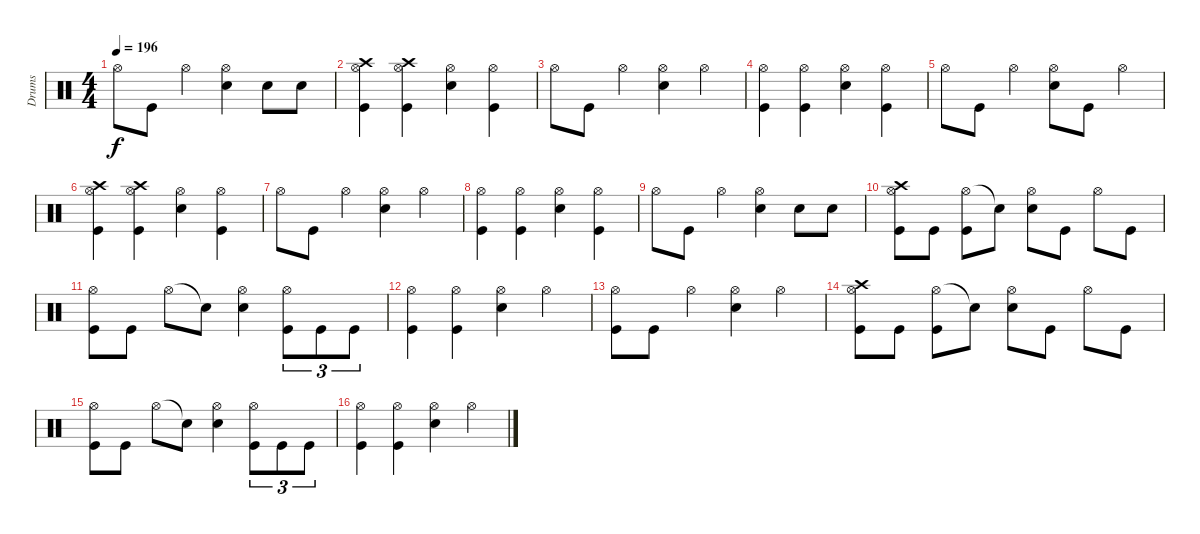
\track ("Drums" "Drums") {instrument percussion}
\staff {score}
\articulation defaults
\ts (4 4)
\tempo 196
\clef neutral
\ks c "Hi-Hat (open)".8{dy f} "Kick (hit)".8 "Hi-Hat (open)".4
("Hi-Hat (open)" "Electric Snare (hit)").4 "Electric Snare (hit)".8 "Electric Snare (hit)".8 |
("Crash high (hit)" "Hi-Hat (open)" "Kick (hit)").4 ("Crash high (hit)" "Hi-Hat (open)" "Kick (hit)").4 ("Hi-Hat (open)" "Electric Snare (hit)").4 ("Hi-Hat (open)" "Kick (hit)").4 |
"Hi-Hat (open)".8 "Kick (hit)".8 "Hi-Hat (open)".4 ("Hi-Hat (open)" "Electric Snare (hit)").4 "Hi-Hat (open)".4 |
("Hi-Hat (open)" "Kick (hit)").4 ("Hi-Hat (open)" "Kick (hit)").4 ("Hi-Hat (open)" "Electric Snare (hit)").4 ("Hi-Hat (open)" "Kick (hit)").4 |
"Hi-Hat (open)".8 "Kick (hit)".8 "Hi-Hat (open)".4 ("Hi-Hat (open)" "Electric Snare (hit)").8 "Kick (hit)".8 "Hi-Hat (open)".4 |
("Crash high (hit)" "Hi-Hat (open)" "Kick (hit)").4 ("Crash high (hit)" "Hi-Hat (open)" "Kick (hit)").4 ("Hi-Hat (open)" "Electric Snare (hit)").4 ("Hi-Hat (open)" "Kick (hit)").4 |
"Hi-Hat (open)".8 "Kick (hit)".8 "Hi-Hat (open)".4 ("Hi-Hat (open)" "Electric Snare (hit)").4 "Hi-Hat (open)".4 |
("Hi-Hat (open)" "Kick (hit)").4 ("Hi-Hat (open)" "Kick (hit)").4 ("Hi-Hat (open)" "Electric Snare (hit)").4 ("Hi-Hat (open)" "Kick (hit)").4 |
"Hi-Hat (open)".8 "Kick (hit)".8 "Hi-Hat (open)".4 ("Hi-Hat (open)" "Electric Snare (hit)").4 "Electric Snare (hit)".8 "Electric Snare (hit)".8 |
("Crash high (hit)" "Hi-Hat (open)" "Kick (hit)").8 "Kick (hit)".8 ("Hi-Hat (open)" "Kick (hit)").8 "Snare (hit)"{t}.8 ("Hi-Hat (open)" "Electric Snare (hit)").8 "Kick (hit)".8 "Hi-Hat (open)".8 "Kick (hit)".8 |
("Hi-Hat (open)" "Kick (hit)").8 "Kick (hit)".8 "Hi-Hat (open)".8 "Snare (hit)"{t}.8 ("Hi-Hat (open)" "Electric Snare (hit)").4 ("Hi-Hat (open)" "Kick (hit)").8{tu (3 2)} "Kick (hit)".8{tu (3 2)} "Kick (hit)".8{tu (3 2)} |
("Hi-Hat (open)" "Kick (hit)").4 ("Hi-Hat (open)" "Kick (hit)").4 ("Hi-Hat (open)" "Electric Snare (hit)").4 "Hi-Hat (open)".4 |
("Hi-Hat (open)" "Kick (hit)").8 "Kick (hit)".8 "Hi-Hat (open)".4 ("Hi-Hat (open)" "Electric Snare (hit)").4 "Hi-Hat (open)".4 |
("Crash high (hit)" "Hi-Hat (open)" "Kick (hit)").8 "Kick (hit)".8 ("Hi-Hat (open)" "Kick (hit)").8 "Snare (hit)"{t}.8 ("Hi-Hat (open)" "Electric Snare (hit)").8 "Kick (hit)".8 "Hi-Hat (open)".8 "Kick (hit)".8 |
("Hi-Hat (open)" "Kick (hit)").8 "Kick (hit)".8 "Hi-Hat (open)".8 "Snare (hit)"{t}.8 ("Hi-Hat (open)" "Electric Snare (hit)").4 ("Hi-Hat (open)" "Kick (hit)").8{tu (3 2)} "Kick (hit)".8{tu (3 2)} "Kick (hit)".8{tu (3 2)} |
("Hi-Hat (open)" "Kick (hit)").4 ("Hi-Hat (open)" "Kick (hit)").4 ("Hi-Hat (open)" "Electric Snare (hit)").4 "Hi-Hat (open)".4
